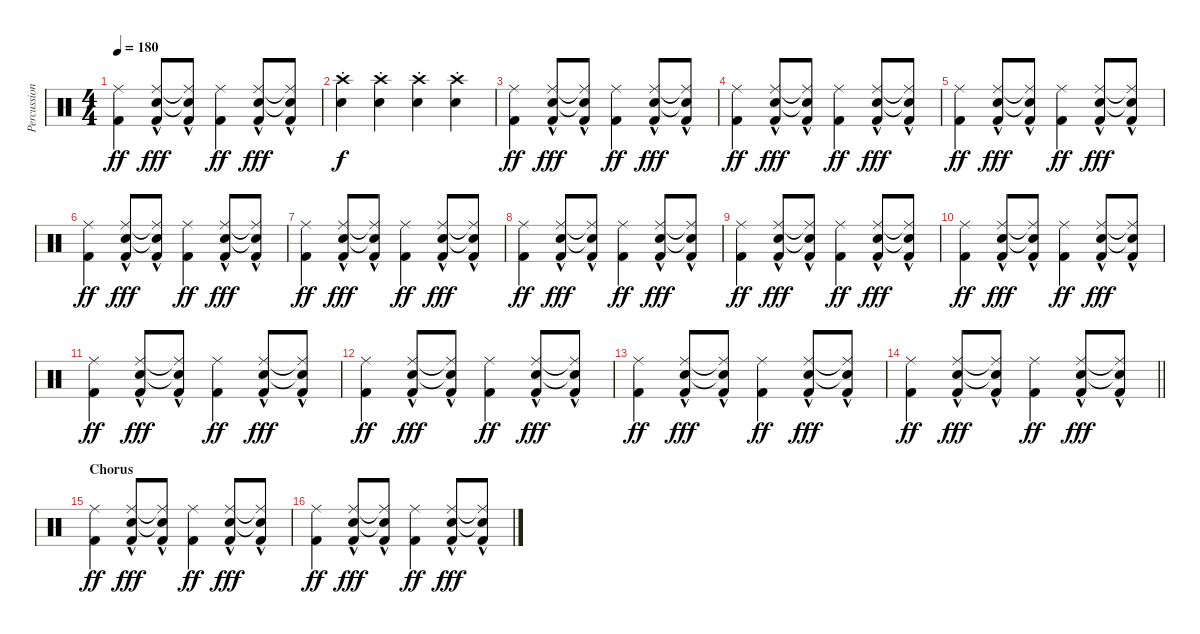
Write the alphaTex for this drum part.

\track ("Percussion" "Percussion") {instrument percussion}
\staff {score}
\articulation defaults
\ts (4 4)
\tempo 180
\clef neutral
\ks c
("Kick (hit) 2" "Ride (middle)").4{dy ff} ("Electric Snare (hit)" "Ride (middle)" "Kick (hit) 2"{hac}).8{dy fff} ("Electric Snare (hit)"{t} "Ride (middle)"{t} "Kick (hit) 2"{hac}).8 ("Kick (hit) 2" "Ride (middle)").4{dy ff} ("Electric Snare (hit)" "Ride (middle)" "Kick (hit) 2"{hac}).8{dy fff} ("Electric Snare (hit)"{t} "Ride (middle)"{t} "Kick (hit) 2"{hac}).8 |
("Crash high (hit)"{st} "Electric Snare (hit)"{st}).4{dy f} ("Crash high (hit)"{st} "Electric Snare (hit)"{st}).4 ("Crash high (hit)"{st} "Electric Snare (hit)"{st}).4 ("Crash high (hit)"{st} "Electric Snare (hit)"{st}).4 |
("Kick (hit) 2" "Ride (middle)").4{dy ff} ("Electric Snare (hit)" "Ride (middle)" "Kick (hit) 2"{hac}).8{dy fff} ("Electric Snare (hit)"{t} "Ride (middle)"{t} "Kick (hit) 2"{hac}).8 ("Kick (hit) 2" "Ride (middle)").4{dy ff} ("Electric Snare (hit)" "Ride (middle)" "Kick (hit) 2"{hac}).8{dy fff} ("Electric Snare (hit)"{t} "Ride (middle)"{t} "Kick (hit) 2"{hac}).8 |
("Kick (hit) 2" "Ride (middle)").4{dy ff} ("Electric Snare (hit)" "Ride (middle)" "Kick (hit) 2"{hac}).8{dy fff} ("Electric Snare (hit)"{t} "Ride (middle)"{t} "Kick (hit) 2"{hac}).8 ("Kick (hit) 2" "Ride (middle)").4{dy ff} ("Electric Snare (hit)" "Ride (middle)" "Kick (hit) 2"{hac}).8{dy fff} ("Electric Snare (hit)"{t} "Ride (middle)"{t} "Kick (hit) 2"{hac}).8 |
("Kick (hit) 2" "Ride (middle)").4{dy ff} ("Electric Snare (hit)" "Ride (middle)" "Kick (hit) 2"{hac}).8{dy fff} ("Electric Snare (hit)"{t} "Ride (middle)"{t} "Kick (hit) 2"{hac}).8 ("Kick (hit) 2" "Ride (middle)").4{dy ff} ("Electric Snare (hit)" "Ride (middle)" "Kick (hit) 2"{hac}).8{dy fff} ("Electric Snare (hit)"{t} "Ride (middle)"{t} "Kick (hit) 2"{hac}).8 |
("Kick (hit) 2" "Ride (middle)").4{dy ff} ("Electric Snare (hit)" "Ride (middle)" "Kick (hit) 2"{hac}).8{dy fff} ("Electric Snare (hit)"{t} "Ride (middle)"{t} "Kick (hit) 2"{hac}).8 ("Kick (hit) 2" "Ride (middle)").4{dy ff} ("Electric Snare (hit)" "Ride (middle)" "Kick (hit) 2"{hac}).8{dy fff} ("Electric Snare (hit)"{t} "Ride (middle)"{t} "Kick (hit) 2"{hac}).8 |
("Kick (hit) 2" "Ride (middle)").4{dy ff} ("Electric Snare (hit)" "Ride (middle)" "Kick (hit) 2"{hac}).8{dy fff} ("Electric Snare (hit)"{t} "Ride (middle)"{t} "Kick (hit) 2"{hac}).8 ("Kick (hit) 2" "Ride (middle)").4{dy ff} ("Electric Snare (hit)" "Ride (middle)" "Kick (hit) 2"{hac}).8{dy fff} ("Electric Snare (hit)"{t} "Ride (middle)"{t} "Kick (hit) 2"{hac}).8 |
("Kick (hit) 2" "Ride (middle)").4{dy ff} ("Electric Snare (hit)" "Ride (middle)" "Kick (hit) 2"{hac}).8{dy fff} ("Electric Snare (hit)"{t} "Ride (middle)"{t} "Kick (hit) 2"{hac}).8 ("Kick (hit) 2" "Ride (middle)").4{dy ff} ("Electric Snare (hit)" "Ride (middle)" "Kick (hit) 2"{hac}).8{dy fff} ("Electric Snare (hit)"{t} "Ride (middle)"{t} "Kick (hit) 2"{hac}).8 |
("Kick (hit) 2" "Ride (middle)").4{dy ff} ("Electric Snare (hit)" "Ride (middle)" "Kick (hit) 2"{hac}).8{dy fff} ("Electric Snare (hit)"{t} "Ride (middle)"{t} "Kick (hit) 2"{hac}).8 ("Kick (hit) 2" "Ride (middle)").4{dy ff} ("Electric Snare (hit)" "Ride (middle)" "Kick (hit) 2"{hac}).8{dy fff} ("Electric Snare (hit)"{t} "Ride (middle)"{t} "Kick (hit) 2"{hac}).8 |
("Kick (hit) 2" "Ride (middle)").4{dy ff} ("Electric Snare (hit)" "Ride (middle)" "Kick (hit) 2"{hac}).8{dy fff} ("Electric Snare (hit)"{t} "Ride (middle)"{t} "Kick (hit) 2"{hac}).8 ("Kick (hit) 2" "Ride (middle)").4{dy ff} ("Electric Snare (hit)" "Ride (middle)" "Kick (hit) 2"{hac}).8{dy fff} ("Electric Snare (hit)"{t} "Ride (middle)"{t} "Kick (hit) 2"{hac}).8 |
("Kick (hit) 2" "Ride (middle)").4{dy ff} ("Electric Snare (hit)" "Ride (middle)" "Kick (hit) 2"{hac}).8{dy fff} ("Electric Snare (hit)"{t} "Ride (middle)"{t} "Kick (hit) 2"{hac}).8 ("Kick (hit) 2" "Ride (middle)").4{dy ff} ("Electric Snare (hit)" "Ride (middle)" "Kick (hit) 2"{hac}).8{dy fff} ("Electric Snare (hit)"{t} "Ride (middle)"{t} "Kick (hit) 2"{hac}).8 |
("Kick (hit) 2" "Ride (middle)").4{dy ff} ("Electric Snare (hit)" "Ride (middle)" "Kick (hit) 2"{hac}).8{dy fff} ("Electric Snare (hit)"{t} "Ride (middle)"{t} "Kick (hit) 2"{hac}).8 ("Kick (hit) 2" "Ride (middle)").4{dy ff} ("Electric Snare (hit)" "Ride (middle)" "Kick (hit) 2"{hac}).8{dy fff} ("Electric Snare (hit)"{t} "Ride (middle)"{t} "Kick (hit) 2"{hac}).8 |
("Kick (hit) 2" "Ride (middle)").4{dy ff} ("Electric Snare (hit)" "Ride (middle)" "Kick (hit) 2"{hac}).8{dy fff} ("Electric Snare (hit)"{t} "Ride (middle)"{t} "Kick (hit) 2"{hac}).8 ("Kick (hit) 2" "Ride (middle)").4{dy ff} ("Electric Snare (hit)" "Ride (middle)" "Kick (hit) 2"{hac}).8{dy fff} ("Electric Snare (hit)"{t} "Ride (middle)"{t} "Kick (hit) 2"{hac}).8 |
\barLineRight lightlight
("Kick (hit) 2" "Ride (middle)").4{dy ff} ("Electric Snare (hit)" "Ride (middle)" "Kick (hit) 2"{hac}).8{dy fff} ("Electric Snare (hit)"{t} "Ride (middle)"{t} "Kick (hit) 2"{hac}).8 ("Kick (hit) 2" "Ride (middle)").4{dy ff} ("Electric Snare (hit)" "Ride (middle)" "Kick (hit) 2"{hac}).8{dy fff} ("Electric Snare (hit)"{t} "Ride (middle)"{t} "Kick (hit) 2"{hac}).8 |
\section ("" "Chorus")
("Kick (hit) 2" "Ride (middle)").4{dy ff} ("Electric Snare (hit)" "Ride (middle)" "Kick (hit) 2"{hac}).8{dy fff} ("Electric Snare (hit)"{t} "Ride (middle)"{t} "Kick (hit) 2"{hac}).8 ("Kick (hit) 2" "Ride (middle)").4{dy ff} ("Electric Snare (hit)" "Ride (middle)" "Kick (hit) 2"{hac}).8{dy fff} ("Electric Snare (hit)"{t} "Ride (middle)"{t} "Kick (hit) 2"{hac}).8 |
("Kick (hit) 2" "Ride (middle)").4{dy ff} ("Electric Snare (hit)" "Ride (middle)" "Kick (hit) 2"{hac}).8{dy fff} ("Electric Snare (hit)"{t} "Ride (middle)"{t} "Kick (hit) 2"{hac}).8 ("Kick (hit) 2" "Ride (middle)").4{dy ff} ("Electric Snare (hit)" "Ride (middle)" "Kick (hit) 2"{hac}).8{dy fff} ("Electric Snare (hit)"{t} "Ride (middle)"{t} "Kick (hit) 2"{hac}).8
